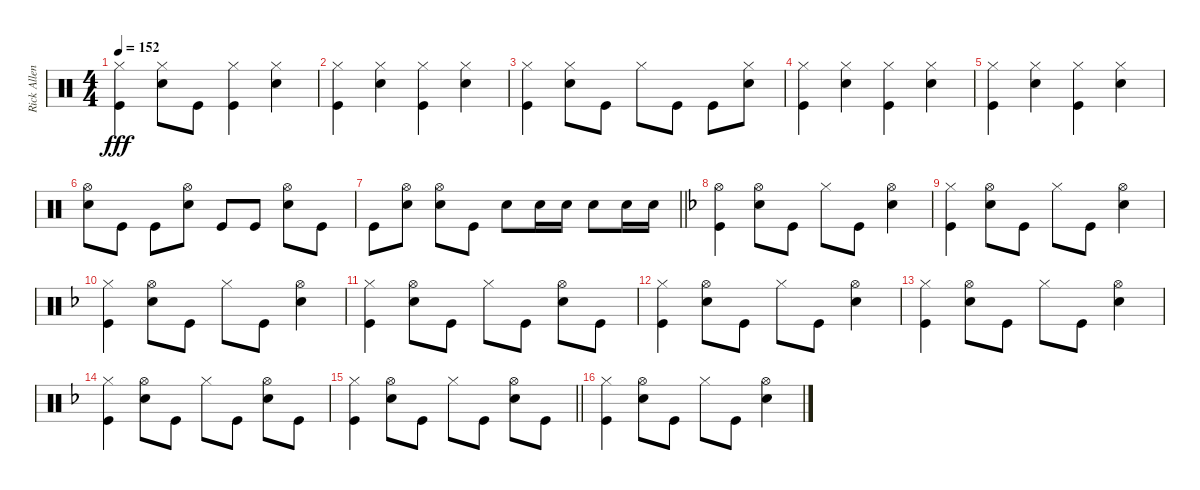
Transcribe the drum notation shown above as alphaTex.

\track ("Rick Allen" "Rick Allen") {instrument percussion}
\staff {score}
\articulation defaults
\ts (4 4)
\tempo 152
\clef neutral
\ks c
("Hi-Hat (closed)" "Kick (hit)").4{dy fff} ("Hi-Hat (closed)" "Snare (hit) 2").8 "Kick (hit)".8 ("Hi-Hat (closed)" "Kick (hit)").4 ("Hi-Hat (closed)" "Snare (hit) 2").4 |
("Hi-Hat (closed)" "Kick (hit)").4 ("Hi-Hat (closed)" "Snare (hit) 2").4 ("Hi-Hat (closed)" "Kick (hit)").4 ("Hi-Hat (closed)" "Snare (hit) 2").4 |
("Hi-Hat (closed)" "Kick (hit)").4 ("Hi-Hat (closed)" "Snare (hit) 2").8 "Kick (hit)".8 "Hi-Hat (closed)".8 "Kick (hit)".8 "Kick (hit)".8 ("Hi-Hat (closed)" "Snare (hit) 2").8 |
("Hi-Hat (closed)" "Kick (hit)").4 ("Hi-Hat (closed)" "Snare (hit) 2").4 ("Hi-Hat (closed)" "Kick (hit)").4 ("Hi-Hat (closed)" "Snare (hit) 2").4 |
("Hi-Hat (closed)" "Kick (hit)").4 ("Hi-Hat (closed)" "Snare (hit) 2").4 ("Hi-Hat (closed)" "Kick (hit)").4 ("Hi-Hat (closed)" "Snare (hit) 2").4 |
("Hi-Hat (open)" "Snare (hit) 2").8 "Kick (hit)".8 "Kick (hit)".8 ("Hi-Hat (open)" "Snare (hit) 2").8 "Kick (hit)".8 "Kick (hit)".8 ("Hi-Hat (open)" "Snare (hit) 2").8 "Kick (hit)".8 |
\barLineRight lightlight "Kick (hit)".8
("Hi-Hat (open)" "Snare (hit) 2").8 ("Hi-Hat (open)" "Snare (hit) 2").8 "Kick (hit)".8 "Snare (hit) 2".8 "Snare (hit) 2".16 "Snare (hit) 2".16 "Snare (hit) 2".8 "Snare (hit) 2".16 "Snare (hit) 2".16 |
\ks dminor
("Hi-Hat (open)" "Kick (hit)").4 ("Hi-Hat (open)" "Snare (hit) 2").8 "Kick (hit)".8 "Hi-Hat (closed)".8 "Kick (hit)".8 ("Hi-Hat (open)" "Snare (hit) 2").4 |
("Hi-Hat (closed)" "Kick (hit)").4 ("Hi-Hat (open)" "Snare (hit) 2").8 "Kick (hit)".8 "Hi-Hat (closed)".8 "Kick (hit)".8 ("Hi-Hat (open)" "Snare (hit) 2").4 |
("Hi-Hat (closed)" "Kick (hit)").4 ("Hi-Hat (open)" "Snare (hit) 2").8 "Kick (hit)".8 "Hi-Hat (closed)".8 "Kick (hit)".8 ("Hi-Hat (open)" "Snare (hit) 2").4 |
("Hi-Hat (closed)" "Kick (hit)").4 ("Hi-Hat (open)" "Snare (hit) 2").8 "Kick (hit)".8 "Hi-Hat (closed)".8 "Kick (hit)".8 ("Hi-Hat (open)" "Snare (hit) 2").8 "Kick (hit)".8 |
("Hi-Hat (closed)" "Kick (hit)").4 ("Hi-Hat (open)" "Snare (hit) 2").8 "Kick (hit)".8 "Hi-Hat (closed)".8 "Kick (hit)".8 ("Hi-Hat (open)" "Snare (hit) 2").4 |
("Hi-Hat (closed)" "Kick (hit)").4 ("Hi-Hat (open)" "Snare (hit) 2").8 "Kick (hit)".8 "Hi-Hat (closed)".8 "Kick (hit)".8 ("Hi-Hat (open)" "Snare (hit) 2").4 |
("Hi-Hat (closed)" "Kick (hit)").4 ("Hi-Hat (open)" "Snare (hit) 2").8 "Kick (hit)".8 "Hi-Hat (closed)".8 "Kick (hit)".8 ("Hi-Hat (open)" "Snare (hit) 2").8 "Kick (hit)".8 |
\barLineRight lightlight
("Hi-Hat (closed)" "Kick (hit)").4 ("Hi-Hat (open)" "Snare (hit) 2").8 "Kick (hit)".8 "Hi-Hat (closed)".8 "Kick (hit)".8 ("Hi-Hat (open)" "Snare (hit) 2").8 "Kick (hit)".8 |
("Hi-Hat (closed)" "Kick (hit)").4 ("Hi-Hat (open)" "Snare (hit) 2").8 "Kick (hit)".8 "Hi-Hat (closed)".8 "Kick (hit)".8 ("Hi-Hat (open)" "Snare (hit) 2").4
